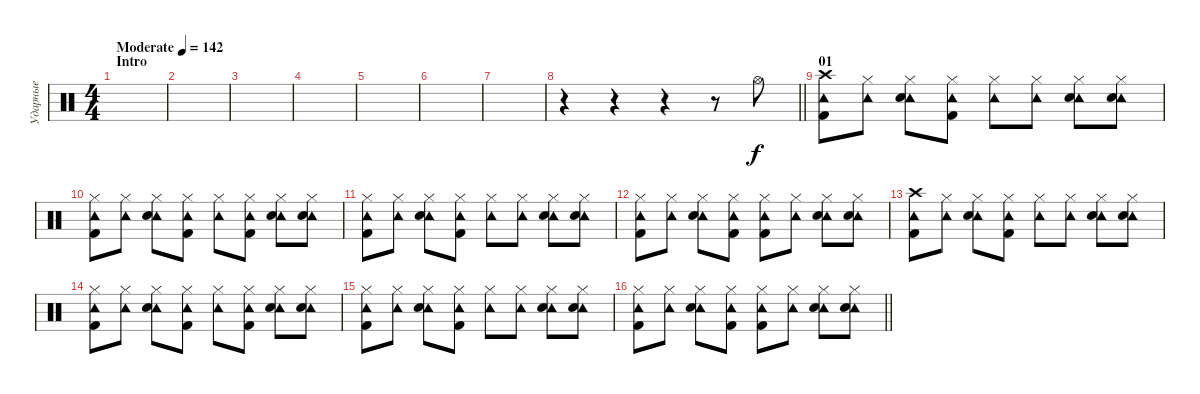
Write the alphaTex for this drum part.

\track ("Ударные" "Ударные") {instrument percussion}
\staff {score}
\articulation defaults
\ts (4 4)
\section ("" "Intro")
\tempo (142 "Moderate")
\clef neutral
\ks c
|
|
|
|
|
|
|
\barLineRight lightlight
r.4 r.4 r.4 r.8 "Hi-Hat (open)".8 |
\section ("" "01")
("Crash high (hit)" "Tambourine (hit)" "Kick (hit) 2").8 ("Hi-Hat (closed)" "Tambourine (hit)").8 ("Hi-Hat (closed)" "Tambourine (hit)" "Electric Snare (hit)").8 ("Hi-Hat (closed)" "Tambourine (hit)" "Kick (hit) 2").8 ("Hi-Hat (closed)" "Tambourine (hit)").8 ("Hi-Hat (closed)" "Tambourine (hit)").8 ("Hi-Hat (closed)" "Tambourine (hit)" "Electric Snare (hit)").8 ("Hi-Hat (closed)" "Tambourine (hit)" "Electric Snare (hit)").8 |
("Hi-Hat (closed)" "Tambourine (hit)" "Kick (hit) 2").8 ("Hi-Hat (closed)" "Tambourine (hit)").8 ("Hi-Hat (closed)" "Tambourine (hit)" "Electric Snare (hit)").8 ("Hi-Hat (closed)" "Tambourine (hit)" "Kick (hit) 2").8 ("Hi-Hat (closed)" "Tambourine (hit)").8 ("Hi-Hat (closed)" "Tambourine (hit)" "Kick (hit) 2").8 ("Hi-Hat (closed)" "Tambourine (hit)" "Electric Snare (hit)").8 ("Hi-Hat (closed)" "Tambourine (hit)" "Electric Snare (hit)").8 |
("Hi-Hat (closed)" "Tambourine (hit)" "Kick (hit) 2").8 ("Hi-Hat (closed)" "Tambourine (hit)").8 ("Hi-Hat (closed)" "Tambourine (hit)" "Electric Snare (hit)").8 ("Hi-Hat (closed)" "Tambourine (hit)" "Kick (hit) 2").8 ("Hi-Hat (closed)" "Tambourine (hit)").8 ("Hi-Hat (closed)" "Tambourine (hit)").8 ("Hi-Hat (closed)" "Tambourine (hit)" "Electric Snare (hit)").8 ("Hi-Hat (closed)" "Tambourine (hit)" "Electric Snare (hit)").8 |
("Hi-Hat (closed)" "Tambourine (hit)" "Kick (hit) 2").8 ("Hi-Hat (closed)" "Tambourine (hit)").8 ("Hi-Hat (closed)" "Tambourine (hit)" "Electric Snare (hit)").8 ("Hi-Hat (closed)" "Tambourine (hit)" "Kick (hit) 2").8 ("Hi-Hat (closed)" "Tambourine (hit)" "Kick (hit) 2").8 ("Hi-Hat (closed)" "Tambourine (hit)").8 ("Hi-Hat (closed)" "Tambourine (hit)" "Electric Snare (hit)").8 ("Hi-Hat (closed)" "Tambourine (hit)" "Electric Snare (hit)").8 |
("Crash high (hit)" "Tambourine (hit)" "Kick (hit) 2").8 ("Hi-Hat (closed)" "Tambourine (hit)").8 ("Hi-Hat (closed)" "Tambourine (hit)" "Electric Snare (hit)").8 ("Hi-Hat (closed)" "Tambourine (hit)" "Kick (hit) 2").8 ("Hi-Hat (closed)" "Tambourine (hit)").8 ("Hi-Hat (closed)" "Tambourine (hit)").8 ("Hi-Hat (closed)" "Tambourine (hit)" "Electric Snare (hit)").8 ("Hi-Hat (closed)" "Tambourine (hit)" "Electric Snare (hit)").8 |
("Hi-Hat (closed)" "Tambourine (hit)" "Kick (hit) 2").8 ("Hi-Hat (closed)" "Tambourine (hit)").8 ("Hi-Hat (closed)" "Tambourine (hit)" "Electric Snare (hit)").8 ("Hi-Hat (closed)" "Tambourine (hit)" "Kick (hit) 2").8 ("Hi-Hat (closed)" "Tambourine (hit)").8 ("Hi-Hat (closed)" "Tambourine (hit)" "Kick (hit) 2").8 ("Hi-Hat (closed)" "Tambourine (hit)" "Electric Snare (hit)").8 ("Hi-Hat (closed)" "Tambourine (hit)" "Electric Snare (hit)").8 |
("Hi-Hat (closed)" "Tambourine (hit)" "Kick (hit) 2").8 ("Hi-Hat (closed)" "Tambourine (hit)").8 ("Hi-Hat (closed)" "Tambourine (hit)" "Electric Snare (hit)").8 ("Hi-Hat (closed)" "Tambourine (hit)" "Kick (hit) 2").8 ("Hi-Hat (closed)" "Tambourine (hit)").8 ("Hi-Hat (closed)" "Tambourine (hit)").8 ("Hi-Hat (closed)" "Tambourine (hit)" "Electric Snare (hit)").8 ("Hi-Hat (closed)" "Tambourine (hit)" "Electric Snare (hit)").8 |
\barLineRight lightlight
("Hi-Hat (closed)" "Tambourine (hit)" "Kick (hit) 2").8 ("Hi-Hat (closed)" "Tambourine (hit)").8 ("Hi-Hat (closed)" "Tambourine (hit)" "Electric Snare (hit)").8 ("Hi-Hat (closed)" "Tambourine (hit)" "Kick (hit) 2").8 ("Hi-Hat (closed)" "Tambourine (hit)" "Kick (hit) 2").8 ("Hi-Hat (closed)" "Tambourine (hit)").8 ("Hi-Hat (closed)" "Tambourine (hit)" "Electric Snare (hit)").8 ("Hi-Hat (closed)" "Tambourine (hit)" "Electric Snare (hit)").8
